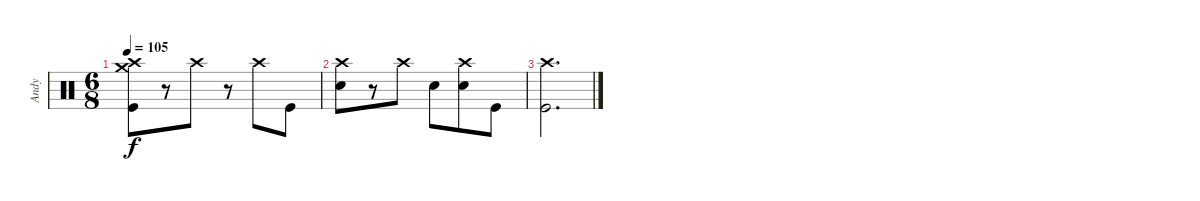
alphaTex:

\track ("Andy" "Andy") {instrument percussion}
\staff {score}
\articulation defaults
\ts (6 8)
\tempo 105
\clef neutral
\ks c
("Kick (hit)" "Crash high (hit)" "Crash medium (hit)").8{dy f} r.8 "Crash high (hit)".8 r.8 "Crash high (hit)".8 "Kick (hit)".8 |
("Snare (hit) 2" "Crash high (hit)").8 r.8 "Crash high (hit)".8 "Snare (hit) 2".8 ("Crash high (hit)" "Snare (hit) 2").8 "Kick (hit)".8 |
("Crash high (hit)" "Kick (hit)").2{d}
